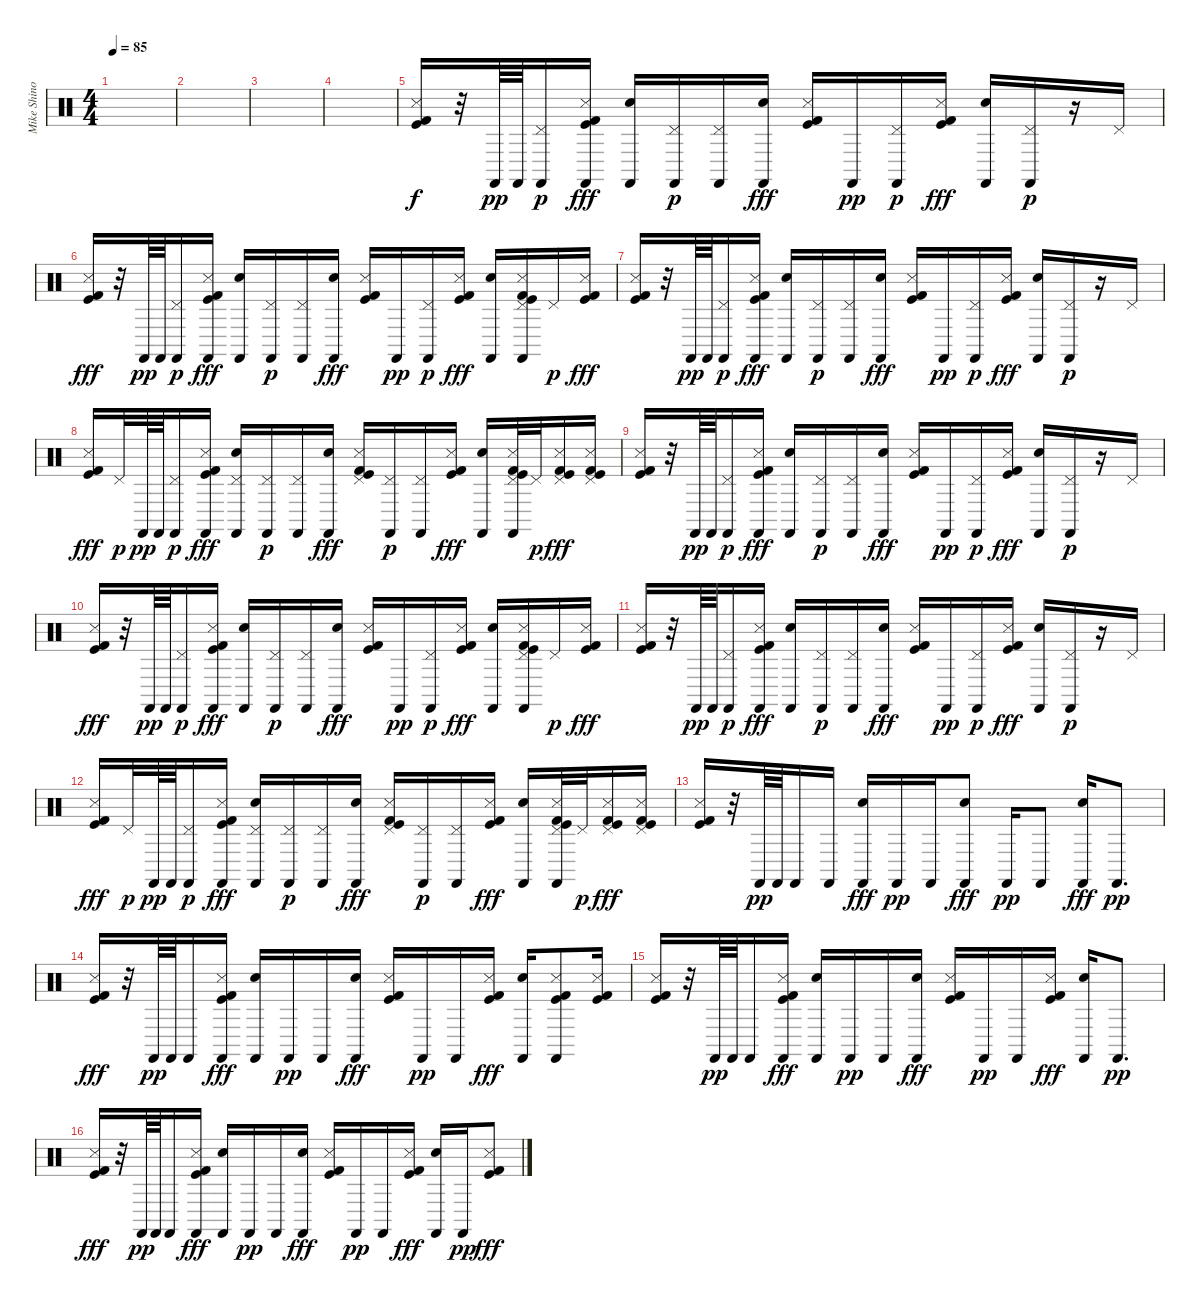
\track ("Mike Shinoda - Percussion" "Mike Shino") {instrument percussion}
\staff {score}
\articulation defaults
\ts (4 4)
\tempo 85
\clef neutral
\ks c
|
|
|
|
("Snare (side stick) 3" "Kick (hit)" "Kick (hit) 2").16 r.32 "Castanets (hit)".64{dy pp} "Castanets (hit)".64 ("Castanets (hit)" "Pedal Hi-Hat (hit)").16{dy p} ("Castanets (hit)" "Snare (side stick) 3" "Kick (hit)" "Kick (hit) 2").16{dy fff} ("Castanets (hit)" "Hand Clap (hit)").16 ("Castanets (hit)" "Pedal Hi-Hat (hit)").16{dy p} ("Castanets (hit)" "Pedal Hi-Hat (hit)").16 ("Castanets (hit)" "Hand Clap (hit)").16{dy fff} ("Snare (side stick) 3" "Kick (hit)" "Kick (hit) 2").16 "Castanets (hit)".16{dy pp} ("Castanets (hit)" "Pedal Hi-Hat (hit)").16{dy p} ("Snare (side stick) 3" "Kick (hit)" "Kick (hit) 2").16{dy fff} ("Castanets (hit)" "Hand Clap (hit)").16 ("Castanets (hit)" "Pedal Hi-Hat (hit)").16{dy p} r.16 "Pedal Hi-Hat (hit)".16 |
("Snare (side stick) 3" "Kick (hit)" "Kick (hit) 2").16{dy fff} r.32 "Castanets (hit)".64{dy pp} "Castanets (hit)".64 ("Castanets (hit)" "Pedal Hi-Hat (hit)").16{dy p} ("Castanets (hit)" "Snare (side stick) 3" "Kick (hit)" "Kick (hit) 2").16{dy fff} ("Castanets (hit)" "Hand Clap (hit)").16 ("Castanets (hit)" "Pedal Hi-Hat (hit)").16{dy p} ("Castanets (hit)" "Pedal Hi-Hat (hit)").16 ("Castanets (hit)" "Hand Clap (hit)").16{dy fff} ("Snare (side stick) 3" "Kick (hit)" "Kick (hit) 2").16 "Castanets (hit)".16{dy pp} ("Castanets (hit)" "Pedal Hi-Hat (hit)").16{dy p} ("Snare (side stick) 3" "Kick (hit)" "Kick (hit) 2").16{dy fff} ("Castanets (hit)" "Hand Clap (hit)").16 ("Castanets (hit)" "Pedal Hi-Hat (hit)" "Snare (side stick) 3" "Kick (hit)" "Kick (hit) 2").16 "Pedal Hi-Hat (hit)".16{dy p} ("Snare (side stick) 3" "Kick (hit)" "Kick (hit) 2").16{dy fff} |
("Snare (side stick) 3" "Kick (hit)" "Kick (hit) 2").16 r.32 "Castanets (hit)".64{dy pp} "Castanets (hit)".64 ("Castanets (hit)" "Pedal Hi-Hat (hit)").16{dy p} ("Castanets (hit)" "Snare (side stick) 3" "Kick (hit)" "Kick (hit) 2").16{dy fff} ("Castanets (hit)" "Hand Clap (hit)").16 ("Castanets (hit)" "Pedal Hi-Hat (hit)").16{dy p} ("Castanets (hit)" "Pedal Hi-Hat (hit)").16 ("Castanets (hit)" "Hand Clap (hit)").16{dy fff} ("Snare (side stick) 3" "Kick (hit)" "Kick (hit) 2").16 "Castanets (hit)".16{dy pp} ("Castanets (hit)" "Pedal Hi-Hat (hit)").16{dy p} ("Snare (side stick) 3" "Kick (hit)" "Kick (hit) 2").16{dy fff} ("Castanets (hit)" "Hand Clap (hit)").16 ("Castanets (hit)" "Pedal Hi-Hat (hit)").16{dy p} r.16 "Pedal Hi-Hat (hit)".16 |
("Snare (side stick) 3" "Kick (hit)" "Kick (hit) 2").16{dy fff} "Pedal Hi-Hat (hit)".32{dy p} "Castanets (hit)".64{dy pp} "Castanets (hit)".64 ("Castanets (hit)" "Pedal Hi-Hat (hit)").16{dy p} ("Castanets (hit)" "Snare (side stick) 3" "Kick (hit)" "Kick (hit) 2").16{dy fff} ("Castanets (hit)" "Pedal Hi-Hat (hit)" "Hand Clap (hit)").16 ("Castanets (hit)" "Pedal Hi-Hat (hit)").16{dy p} ("Castanets (hit)" "Pedal Hi-Hat (hit)").16 ("Castanets (hit)" "Hand Clap (hit)").16{dy fff} ("Pedal Hi-Hat (hit)" "Snare (side stick) 3" "Kick (hit)" "Kick (hit) 2").16 ("Castanets (hit)" "Pedal Hi-Hat (hit)").16{dy p} ("Castanets (hit)" "Pedal Hi-Hat (hit)").16 ("Snare (side stick) 3" "Kick (hit)" "Kick (hit) 2").16{dy fff} ("Castanets (hit)" "Hand Clap (hit)").16 ("Castanets (hit)" "Pedal Hi-Hat (hit)" "Snare (side stick) 3" "Kick (hit)" "Kick (hit) 2").32 "Pedal Hi-Hat (hit)".32{dy p} ("Pedal Hi-Hat (hit)" "Snare (side stick) 3" "Kick (hit)" "Kick (hit) 2").16{dy fff} ("Pedal Hi-Hat (hit)" "Snare (side stick) 3" "Kick (hit)" "Kick (hit) 2").16 |
("Snare (side stick) 3" "Kick (hit)" "Kick (hit) 2").16 r.32 "Castanets (hit)".64{dy pp} "Castanets (hit)".64 ("Castanets (hit)" "Pedal Hi-Hat (hit)").16{dy p} ("Castanets (hit)" "Snare (side stick) 3" "Kick (hit)" "Kick (hit) 2").16{dy fff} ("Castanets (hit)" "Hand Clap (hit)").16 ("Castanets (hit)" "Pedal Hi-Hat (hit)").16{dy p} ("Castanets (hit)" "Pedal Hi-Hat (hit)").16 ("Castanets (hit)" "Hand Clap (hit)").16{dy fff} ("Snare (side stick) 3" "Kick (hit)" "Kick (hit) 2").16 "Castanets (hit)".16{dy pp} ("Castanets (hit)" "Pedal Hi-Hat (hit)").16{dy p} ("Snare (side stick) 3" "Kick (hit)" "Kick (hit) 2").16{dy fff} ("Castanets (hit)" "Hand Clap (hit)").16 ("Castanets (hit)" "Pedal Hi-Hat (hit)").16{dy p} r.16 "Pedal Hi-Hat (hit)".16 |
("Snare (side stick) 3" "Kick (hit)" "Kick (hit) 2").16{dy fff} r.32 "Castanets (hit)".64{dy pp} "Castanets (hit)".64 ("Castanets (hit)" "Pedal Hi-Hat (hit)").16{dy p} ("Castanets (hit)" "Snare (side stick) 3" "Kick (hit)" "Kick (hit) 2").16{dy fff} ("Castanets (hit)" "Hand Clap (hit)").16 ("Castanets (hit)" "Pedal Hi-Hat (hit)").16{dy p} ("Castanets (hit)" "Pedal Hi-Hat (hit)").16 ("Castanets (hit)" "Hand Clap (hit)").16{dy fff} ("Snare (side stick) 3" "Kick (hit)" "Kick (hit) 2").16 "Castanets (hit)".16{dy pp} ("Castanets (hit)" "Pedal Hi-Hat (hit)").16{dy p} ("Snare (side stick) 3" "Kick (hit)" "Kick (hit) 2").16{dy fff} ("Castanets (hit)" "Hand Clap (hit)").16 ("Castanets (hit)" "Pedal Hi-Hat (hit)" "Snare (side stick) 3" "Kick (hit)" "Kick (hit) 2").16 "Pedal Hi-Hat (hit)".16{dy p} ("Snare (side stick) 3" "Kick (hit)" "Kick (hit) 2").16{dy fff} |
("Snare (side stick) 3" "Kick (hit)" "Kick (hit) 2").16 r.32 "Castanets (hit)".64{dy pp} "Castanets (hit)".64 ("Castanets (hit)" "Pedal Hi-Hat (hit)").16{dy p} ("Castanets (hit)" "Snare (side stick) 3" "Kick (hit)" "Kick (hit) 2").16{dy fff} ("Castanets (hit)" "Hand Clap (hit)").16 ("Castanets (hit)" "Pedal Hi-Hat (hit)").16{dy p} ("Castanets (hit)" "Pedal Hi-Hat (hit)").16 ("Castanets (hit)" "Hand Clap (hit)").16{dy fff} ("Snare (side stick) 3" "Kick (hit)" "Kick (hit) 2").16 "Castanets (hit)".16{dy pp} ("Castanets (hit)" "Pedal Hi-Hat (hit)").16{dy p} ("Snare (side stick) 3" "Kick (hit)" "Kick (hit) 2").16{dy fff} ("Castanets (hit)" "Hand Clap (hit)").16 ("Castanets (hit)" "Pedal Hi-Hat (hit)").16{dy p} r.16 "Pedal Hi-Hat (hit)".16 |
("Snare (side stick) 3" "Kick (hit)" "Kick (hit) 2").16{dy fff} "Pedal Hi-Hat (hit)".32{dy p} "Castanets (hit)".64{dy pp} "Castanets (hit)".64 ("Castanets (hit)" "Pedal Hi-Hat (hit)").16{dy p} ("Castanets (hit)" "Snare (side stick) 3" "Kick (hit)" "Kick (hit) 2").16{dy fff} ("Castanets (hit)" "Pedal Hi-Hat (hit)" "Hand Clap (hit)").16 ("Castanets (hit)" "Pedal Hi-Hat (hit)").16{dy p} ("Castanets (hit)" "Pedal Hi-Hat (hit)").16 ("Castanets (hit)" "Hand Clap (hit)").16{dy fff} ("Pedal Hi-Hat (hit)" "Snare (side stick) 3" "Kick (hit)" "Kick (hit) 2").16 ("Castanets (hit)" "Pedal Hi-Hat (hit)").16{dy p} ("Castanets (hit)" "Pedal Hi-Hat (hit)").16 ("Snare (side stick) 3" "Kick (hit)" "Kick (hit) 2").16{dy fff} ("Castanets (hit)" "Hand Clap (hit)").16 ("Castanets (hit)" "Pedal Hi-Hat (hit)" "Snare (side stick) 3" "Kick (hit)" "Kick (hit) 2").32 "Pedal Hi-Hat (hit)".32{dy p} ("Pedal Hi-Hat (hit)" "Snare (side stick) 3" "Kick (hit)" "Kick (hit) 2").16{dy fff} ("Pedal Hi-Hat (hit)" "Snare (side stick) 3" "Kick (hit)" "Kick (hit) 2").16 |
("Snare (side stick) 3" "Kick (hit)" "Kick (hit) 2").16 r.32 "Castanets (hit)".64{dy pp} "Castanets (hit)".64 "Castanets (hit)".16 "Castanets (hit)".16 ("Castanets (hit)" "Hand Clap (hit)").16{dy fff} "Castanets (hit)".16{dy pp} "Castanets (hit)".16 ("Castanets (hit)" "Hand Clap (hit)").8{dy fff} "Castanets (hit)".16{dy pp} "Castanets (hit)".8 ("Castanets (hit)" "Hand Clap (hit)").16{dy fff} "Castanets (hit)".8{d dy pp} |
("Snare (side stick) 3" "Kick (hit)" "Kick (hit) 2").16{dy fff} r.32 "Castanets (hit)".64{dy pp} "Castanets (hit)".64 "Castanets (hit)".16 ("Castanets (hit)" "Snare (side stick) 3" "Kick (hit)" "Kick (hit) 2").16{dy fff} ("Castanets (hit)" "Hand Clap (hit)").16 "Castanets (hit)".16{dy pp} "Castanets (hit)".16 ("Castanets (hit)" "Hand Clap (hit)").16{dy fff} ("Snare (side stick) 3" "Kick (hit)" "Kick (hit) 2").16 "Castanets (hit)".16{dy pp} "Castanets (hit)".16 ("Snare (side stick) 3" "Kick (hit)" "Kick (hit) 2").16{dy fff} ("Castanets (hit)" "Hand Clap (hit)").16 ("Castanets (hit)" "Snare (side stick) 3" "Kick (hit)" "Kick (hit) 2").8 ("Snare (side stick) 3" "Kick (hit)" "Kick (hit) 2").16 |
("Snare (side stick) 3" "Kick (hit)" "Kick (hit) 2").16 r.32 "Castanets (hit)".64{dy pp} "Castanets (hit)".64 "Castanets (hit)".16 ("Castanets (hit)" "Snare (side stick) 3" "Kick (hit)" "Kick (hit) 2").16{dy fff} ("Castanets (hit)" "Hand Clap (hit)").16 "Castanets (hit)".16{dy pp} "Castanets (hit)".16 ("Castanets (hit)" "Hand Clap (hit)").16{dy fff} ("Snare (side stick) 3" "Kick (hit)" "Kick (hit) 2").16 "Castanets (hit)".16{dy pp} "Castanets (hit)".16 ("Snare (side stick) 3" "Kick (hit)" "Kick (hit) 2").16{dy fff} ("Castanets (hit)" "Hand Clap (hit)").16 "Castanets (hit)".8{d dy pp} |
("Snare (side stick) 3" "Kick (hit)" "Kick (hit) 2").16{dy fff} r.32 "Castanets (hit)".64{dy pp} "Castanets (hit)".64 "Castanets (hit)".16 ("Castanets (hit)" "Snare (side stick) 3" "Kick (hit)" "Kick (hit) 2").16{dy fff} ("Castanets (hit)" "Hand Clap (hit)").16 "Castanets (hit)".16{dy pp} "Castanets (hit)".16 ("Castanets (hit)" "Hand Clap (hit)").16{dy fff} ("Snare (side stick) 3" "Kick (hit)" "Kick (hit) 2").16 "Castanets (hit)".16{dy pp} "Castanets (hit)".16 ("Snare (side stick) 3" "Kick (hit)" "Kick (hit) 2").16{dy fff} ("Castanets (hit)" "Hand Clap (hit)").16 "Castanets (hit)".16{dy pp} ("Snare (side stick) 3" "Kick (hit)" "Kick (hit) 2").8{dy fff}
